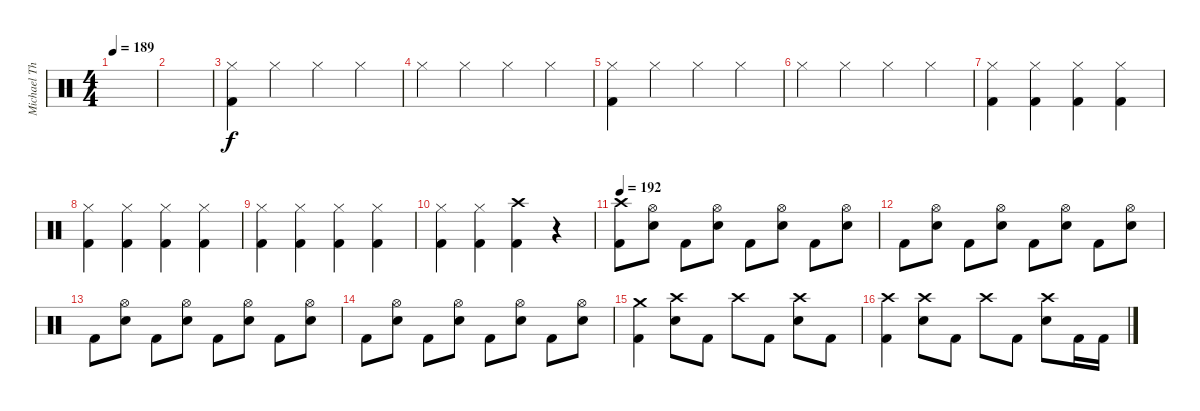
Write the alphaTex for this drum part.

\track ("Michael Thomas (Drums)" "Michael Th") {instrument percussion}
\staff {score}
\articulation defaults
\ts (4 4)
\tempo 189
\clef neutral
\ks c
|
|
("Hi-Hat (closed)" "Kick (hit) 2").4 "Hi-Hat (closed)".4 "Hi-Hat (closed)".4 "Hi-Hat (closed)".4 |
"Hi-Hat (closed)".4 "Hi-Hat (closed)".4 "Hi-Hat (closed)".4 "Hi-Hat (closed)".4 |
("Hi-Hat (closed)" "Kick (hit) 2").4 "Hi-Hat (closed)".4 "Hi-Hat (closed)".4 "Hi-Hat (closed)".4 |
"Hi-Hat (closed)".4 "Hi-Hat (closed)".4 "Hi-Hat (closed)".4 "Hi-Hat (closed)".4 |
("Hi-Hat (closed)" "Kick (hit) 2").4 ("Hi-Hat (closed)" "Kick (hit) 2").4 ("Hi-Hat (closed)" "Kick (hit) 2").4 ("Hi-Hat (closed)" "Kick (hit) 2").4 |
("Hi-Hat (closed)" "Kick (hit) 2").4 ("Hi-Hat (closed)" "Kick (hit) 2").4 ("Hi-Hat (closed)" "Kick (hit) 2").4 ("Hi-Hat (closed)" "Kick (hit) 2").4 |
("Hi-Hat (closed)" "Kick (hit) 2").4 ("Hi-Hat (closed)" "Kick (hit) 2").4 ("Hi-Hat (closed)" "Kick (hit) 2").4 ("Hi-Hat (closed)" "Kick (hit) 2").4 |
("Hi-Hat (closed)" "Kick (hit) 2").4 ("Hi-Hat (closed)" "Kick (hit) 2").4 ("Crash high (hit)" "Kick (hit) 2").4 r.4{volume 0} |
\tempo 192
("Crash high (hit)" "Kick (hit) 2").8{volume 16} ("Hi-Hat (open)" "Snare (hit) 2").8 "Kick (hit) 2".8 ("Hi-Hat (open)" "Snare (hit) 2").8 "Kick (hit) 2".8 ("Hi-Hat (open)" "Snare (hit) 2").8 "Kick (hit) 2".8 ("Hi-Hat (open)" "Snare (hit) 2").8 |
"Kick (hit) 2".8 ("Hi-Hat (open)" "Snare (hit) 2").8 "Kick (hit) 2".8 ("Hi-Hat (open)" "Snare (hit) 2").8 "Kick (hit) 2".8 ("Hi-Hat (open)" "Snare (hit) 2").8 "Kick (hit) 2".8 ("Hi-Hat (open)" "Snare (hit) 2").8 |
"Kick (hit) 2".8 ("Hi-Hat (open)" "Snare (hit) 2").8 "Kick (hit) 2".8 ("Hi-Hat (open)" "Snare (hit) 2").8 "Kick (hit) 2".8 ("Hi-Hat (open)" "Snare (hit) 2").8 "Kick (hit) 2".8 ("Hi-Hat (open)" "Snare (hit) 2").8 |
"Kick (hit) 2".8 ("Hi-Hat (open)" "Snare (hit) 2").8 "Kick (hit) 2".8 ("Hi-Hat (open)" "Snare (hit) 2").8 "Kick (hit) 2".8 ("Hi-Hat (open)" "Snare (hit) 2").8 "Kick (hit) 2".8 ("Hi-Hat (open)" "Snare (hit) 2").8 |
("Crash medium (hit)" "Kick (hit) 2").4 ("Crash high (hit)" "Snare (hit) 2").8 "Kick (hit) 2".8 "Crash high (hit)".8 "Kick (hit) 2".8 ("Crash high (hit)" "Snare (hit) 2").8 "Kick (hit) 2".8 |
("Crash high (hit)" "Kick (hit) 2").4 ("Crash high (hit)" "Snare (hit) 2").8 "Kick (hit) 2".8 "Crash high (hit)".8 "Kick (hit) 2".8 ("Crash high (hit)" "Snare (hit) 2").8 "Kick (hit) 2".16 "Kick (hit) 2".16
